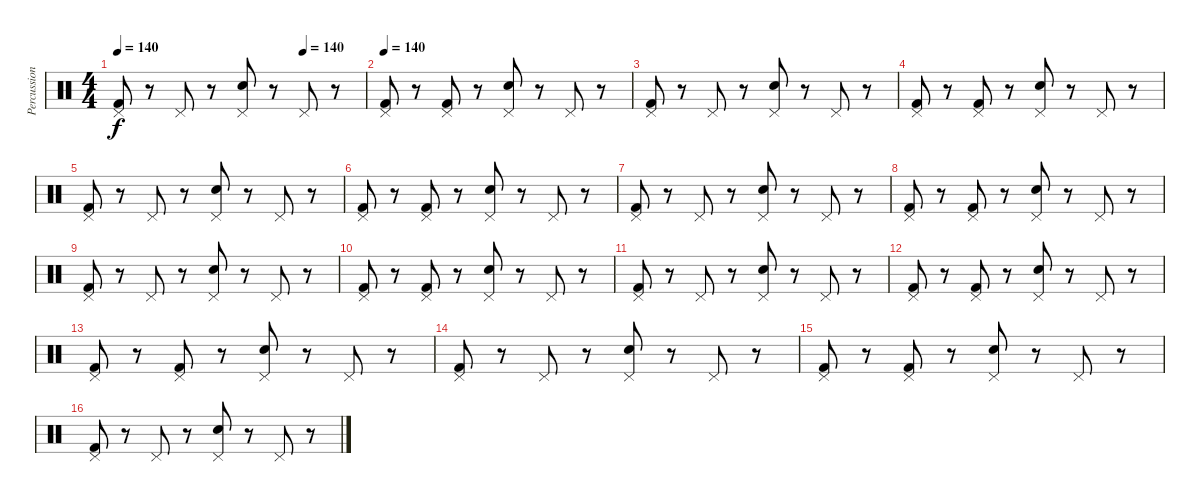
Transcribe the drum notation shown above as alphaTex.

\track ("Percussion" "Percussion") {instrument percussion}
\staff {score}
\articulation defaults
\ts (4 4)
\tempo 140
\tempo (140 0.75)
\clef neutral
\ks c
("Kick (hit) 2" "Pedal Hi-Hat (hit)").8{dy f} r.8 "Pedal Hi-Hat (hit)".8 r.8 ("Electric Snare (hit)" "Pedal Hi-Hat (hit)").8 r.8 "Pedal Hi-Hat (hit)".8 r.8 |
\tempo 140
("Kick (hit) 2" "Pedal Hi-Hat (hit)").8 r.8 ("Kick (hit) 2" "Pedal Hi-Hat (hit)").8 r.8 ("Electric Snare (hit)" "Pedal Hi-Hat (hit)").8 r.8 "Pedal Hi-Hat (hit)".8 r.8 |
("Kick (hit) 2" "Pedal Hi-Hat (hit)").8 r.8 "Pedal Hi-Hat (hit)".8 r.8 ("Electric Snare (hit)" "Pedal Hi-Hat (hit)").8 r.8 "Pedal Hi-Hat (hit)".8 r.8 |
("Kick (hit) 2" "Pedal Hi-Hat (hit)").8 r.8 ("Kick (hit) 2" "Pedal Hi-Hat (hit)").8 r.8 ("Electric Snare (hit)" "Pedal Hi-Hat (hit)").8 r.8 "Pedal Hi-Hat (hit)".8 r.8 |
("Kick (hit) 2" "Pedal Hi-Hat (hit)").8 r.8 "Pedal Hi-Hat (hit)".8 r.8 ("Electric Snare (hit)" "Pedal Hi-Hat (hit)").8 r.8 "Pedal Hi-Hat (hit)".8 r.8 |
("Kick (hit) 2" "Pedal Hi-Hat (hit)").8 r.8 ("Kick (hit) 2" "Pedal Hi-Hat (hit)").8 r.8 ("Electric Snare (hit)" "Pedal Hi-Hat (hit)").8 r.8 "Pedal Hi-Hat (hit)".8 r.8 |
("Kick (hit) 2" "Pedal Hi-Hat (hit)").8 r.8 "Pedal Hi-Hat (hit)".8 r.8 ("Electric Snare (hit)" "Pedal Hi-Hat (hit)").8 r.8 "Pedal Hi-Hat (hit)".8 r.8 |
("Kick (hit) 2" "Pedal Hi-Hat (hit)").8 r.8 ("Kick (hit) 2" "Pedal Hi-Hat (hit)").8 r.8 ("Electric Snare (hit)" "Pedal Hi-Hat (hit)").8 r.8 "Pedal Hi-Hat (hit)".8 r.8 |
("Kick (hit) 2" "Pedal Hi-Hat (hit)").8 r.8 "Pedal Hi-Hat (hit)".8 r.8 ("Electric Snare (hit)" "Pedal Hi-Hat (hit)").8 r.8 "Pedal Hi-Hat (hit)".8 r.8 |
("Kick (hit) 2" "Pedal Hi-Hat (hit)").8 r.8 ("Kick (hit) 2" "Pedal Hi-Hat (hit)").8 r.8 ("Electric Snare (hit)" "Pedal Hi-Hat (hit)").8 r.8 "Pedal Hi-Hat (hit)".8 r.8 |
("Kick (hit) 2" "Pedal Hi-Hat (hit)").8 r.8 "Pedal Hi-Hat (hit)".8 r.8 ("Electric Snare (hit)" "Pedal Hi-Hat (hit)").8 r.8 "Pedal Hi-Hat (hit)".8 r.8 |
("Kick (hit) 2" "Pedal Hi-Hat (hit)").8 r.8 ("Kick (hit) 2" "Pedal Hi-Hat (hit)").8 r.8 ("Electric Snare (hit)" "Pedal Hi-Hat (hit)").8 r.8 "Pedal Hi-Hat (hit)".8 r.8 |
("Kick (hit) 2" "Pedal Hi-Hat (hit)").8 r.8 ("Kick (hit) 2" "Pedal Hi-Hat (hit)").8 r.8 ("Electric Snare (hit)" "Pedal Hi-Hat (hit)").8 r.8 "Pedal Hi-Hat (hit)".8 r.8 |
("Kick (hit) 2" "Pedal Hi-Hat (hit)").8 r.8 "Pedal Hi-Hat (hit)".8 r.8 ("Electric Snare (hit)" "Pedal Hi-Hat (hit)").8 r.8 "Pedal Hi-Hat (hit)".8 r.8 |
("Kick (hit) 2" "Pedal Hi-Hat (hit)").8 r.8 ("Kick (hit) 2" "Pedal Hi-Hat (hit)").8 r.8 ("Electric Snare (hit)" "Pedal Hi-Hat (hit)").8 r.8 "Pedal Hi-Hat (hit)".8 r.8 |
("Kick (hit) 2" "Pedal Hi-Hat (hit)").8 r.8 "Pedal Hi-Hat (hit)".8 r.8 ("Electric Snare (hit)" "Pedal Hi-Hat (hit)").8 r.8 "Pedal Hi-Hat (hit)".8 r.8
